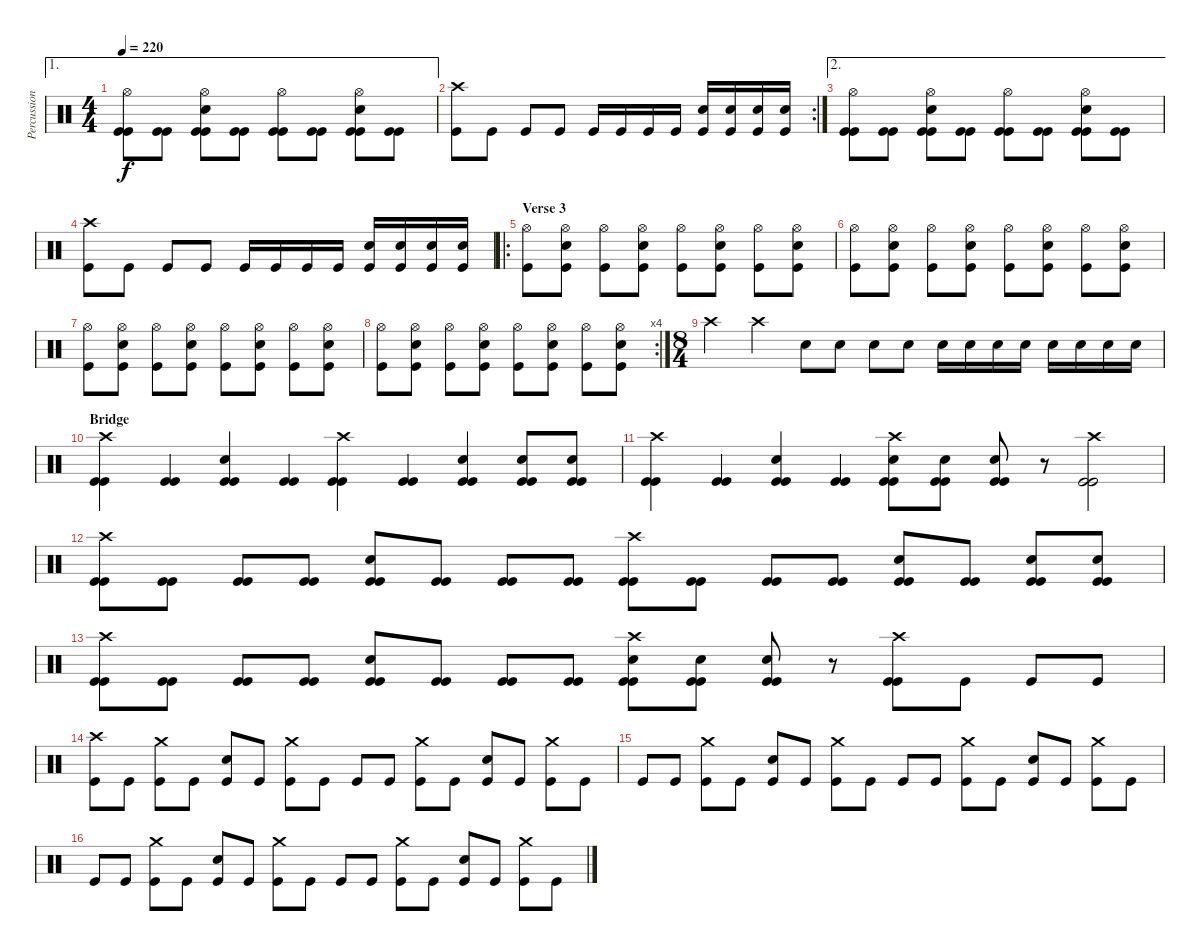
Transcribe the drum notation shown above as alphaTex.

\track ("Percussion" "Percussion") {instrument percussion}
\staff {score}
\articulation defaults
\ae 1
\ts (4 4)
\tempo 220
\clef neutral
\ks c
("Hi-Hat (open)" "Kick (hit)" "Kick (hit)").8{dy f} ("Kick (hit)" "Kick (hit)").8 ("Hi-Hat (open)" "Snare (hit) 2" "Kick (hit)" "Kick (hit)").8 ("Kick (hit)" "Kick (hit)").8 ("Hi-Hat (open)" "Kick (hit)" "Kick (hit)").8 ("Kick (hit)" "Kick (hit)").8 ("Hi-Hat (open)" "Snare (hit) 2" "Kick (hit)" "Kick (hit)").8 ("Kick (hit)" "Kick (hit)").8 |
\rc 2
("Crash high (hit)" "Kick (hit)").8 "Kick (hit)".8 "Kick (hit)".8 "Kick (hit)".8 "Kick (hit)".16 "Kick (hit)".16 "Kick (hit)".16 "Kick (hit)".16 ("Snare (hit) 2" "Kick (hit)").16 ("Snare (hit) 2" "Kick (hit)").16 ("Snare (hit) 2" "Kick (hit)").16 ("Snare (hit) 2" "Kick (hit)").16 |
\ae 2
("Hi-Hat (open)" "Kick (hit)" "Kick (hit)").8 ("Kick (hit)" "Kick (hit)").8 ("Hi-Hat (open)" "Snare (hit) 2" "Kick (hit)" "Kick (hit)").8 ("Kick (hit)" "Kick (hit)").8 ("Hi-Hat (open)" "Kick (hit)" "Kick (hit)").8 ("Kick (hit)" "Kick (hit)").8 ("Hi-Hat (open)" "Snare (hit) 2" "Kick (hit)" "Kick (hit)").8 ("Kick (hit)" "Kick (hit)").8 |
("Crash high (hit)" "Kick (hit)").8 "Kick (hit)".8 "Kick (hit)".8 "Kick (hit)".8 "Kick (hit)".16 "Kick (hit)".16 "Kick (hit)".16 "Kick (hit)".16 ("Snare (hit) 2" "Kick (hit)").16 ("Snare (hit) 2" "Kick (hit)").16 ("Snare (hit) 2" "Kick (hit)").16 ("Snare (hit) 2" "Kick (hit)").16 |
\ro
\section ("" "Verse 3")
("Hi-Hat (open)" "Kick (hit)").8 ("Hi-Hat (open)" "Snare (hit) 2" "Kick (hit)").8 ("Hi-Hat (open)" "Kick (hit)").8 ("Hi-Hat (open)" "Snare (hit) 2" "Kick (hit)").8 ("Hi-Hat (open)" "Kick (hit)").8 ("Hi-Hat (open)" "Snare (hit) 2" "Kick (hit)").8 ("Hi-Hat (open)" "Kick (hit)").8 ("Hi-Hat (open)" "Snare (hit) 2" "Kick (hit)").8 |
("Hi-Hat (open)" "Kick (hit)").8 ("Hi-Hat (open)" "Snare (hit) 2" "Kick (hit)").8 ("Hi-Hat (open)" "Kick (hit)").8 ("Hi-Hat (open)" "Snare (hit) 2" "Kick (hit)").8 ("Hi-Hat (open)" "Kick (hit)").8 ("Hi-Hat (open)" "Snare (hit) 2" "Kick (hit)").8 ("Hi-Hat (open)" "Kick (hit)").8 ("Hi-Hat (open)" "Snare (hit) 2" "Kick (hit)").8 |
("Hi-Hat (open)" "Kick (hit)").8 ("Hi-Hat (open)" "Snare (hit) 2" "Kick (hit)").8 ("Hi-Hat (open)" "Kick (hit)").8 ("Hi-Hat (open)" "Snare (hit) 2" "Kick (hit)").8 ("Hi-Hat (open)" "Kick (hit)").8 ("Hi-Hat (open)" "Snare (hit) 2" "Kick (hit)").8 ("Hi-Hat (open)" "Kick (hit)").8 ("Hi-Hat (open)" "Snare (hit) 2" "Kick (hit)").8 |
\rc 4
("Hi-Hat (open)" "Kick (hit)").8 ("Hi-Hat (open)" "Snare (hit) 2" "Kick (hit)").8 ("Hi-Hat (open)" "Kick (hit)").8 ("Hi-Hat (open)" "Snare (hit) 2" "Kick (hit)").8 ("Hi-Hat (open)" "Kick (hit)").8 ("Hi-Hat (open)" "Snare (hit) 2" "Kick (hit)").8 ("Hi-Hat (open)" "Kick (hit)").8 ("Hi-Hat (open)" "Snare (hit) 2" "Kick (hit)").8 |
\ts (8 4)
"Crash high (hit)".2 "Crash high (hit)".2 "Snare (hit) 2".8 "Snare (hit) 2".8 "Snare (hit) 2".8 "Snare (hit) 2".8 "Snare (hit) 2".16 "Snare (hit) 2".16 "Snare (hit) 2".16 "Snare (hit) 2".16 "Snare (hit) 2".16 "Snare (hit) 2".16 "Snare (hit) 2".16 "Snare (hit) 2".16 |
\section ("" "Bridge")
("Crash high (hit)" "Kick (hit)" "Kick (hit)").4 ("Kick (hit)" "Kick (hit)").4 ("Snare (hit) 2" "Kick (hit)" "Kick (hit)").4 ("Kick (hit)" "Kick (hit)").4 ("Crash high (hit)" "Kick (hit)" "Kick (hit)").4 ("Kick (hit)" "Kick (hit)").4 ("Snare (hit) 2" "Kick (hit)" "Kick (hit)").4 ("Snare (hit) 2" "Kick (hit)" "Kick (hit)").8 ("Snare (hit) 2" "Kick (hit)" "Kick (hit)").8 |
("Crash high (hit)" "Kick (hit)" "Kick (hit)").4 ("Kick (hit)" "Kick (hit)").4 ("Snare (hit) 2" "Kick (hit)" "Kick (hit)").4 ("Kick (hit)" "Kick (hit)").4 ("Crash high (hit)" "Snare (hit) 2" "Kick (hit)" "Kick (hit)").8 ("Snare (hit) 2" "Kick (hit)" "Kick (hit)").8 ("Snare (hit) 2" "Kick (hit)" "Kick (hit)").8 r.8 ("Crash high (hit)" "Kick (hit)" "Kick (hit)").2 |
("Crash high (hit)" "Kick (hit)" "Kick (hit)").8 ("Kick (hit)" "Kick (hit)").8 ("Kick (hit)" "Kick (hit)").8 ("Kick (hit)" "Kick (hit)").8 ("Snare (hit) 2" "Kick (hit)" "Kick (hit)").8 ("Kick (hit)" "Kick (hit)").8 ("Kick (hit)" "Kick (hit)").8 ("Kick (hit)" "Kick (hit)").8 ("Crash high (hit)" "Kick (hit)" "Kick (hit)").8 ("Kick (hit)" "Kick (hit)").8 ("Kick (hit)" "Kick (hit)").8 ("Kick (hit)" "Kick (hit)").8 ("Snare (hit) 2" "Kick (hit)" "Kick (hit)").8 ("Kick (hit)" "Kick (hit)").8 ("Snare (hit) 2" "Kick (hit)" "Kick (hit)").8 ("Snare (hit) 2" "Kick (hit)" "Kick (hit)").8 |
("Crash high (hit)" "Kick (hit)" "Kick (hit)").8 ("Kick (hit)" "Kick (hit)").8 ("Kick (hit)" "Kick (hit)").8 ("Kick (hit)" "Kick (hit)").8 ("Snare (hit) 2" "Kick (hit)" "Kick (hit)").8 ("Kick (hit)" "Kick (hit)").8 ("Kick (hit)" "Kick (hit)").8 ("Kick (hit)" "Kick (hit)").8 ("Crash high (hit)" "Snare (hit) 2" "Kick (hit)" "Kick (hit)").8 ("Snare (hit) 2" "Kick (hit)" "Kick (hit)").8 ("Snare (hit) 2" "Kick (hit)" "Kick (hit)").8 r.8 ("Crash high (hit)" "Kick (hit)" "Kick (hit)").8 "Kick (hit)".8 "Kick (hit)".8 "Kick (hit)".8 |
("Crash high (hit)" "Kick (hit)").8 "Kick (hit)".8 ("Crash medium (hit)" "Kick (hit)").8 "Kick (hit)".8 ("Snare (hit) 2" "Kick (hit)").8 "Kick (hit)".8 ("Crash medium (hit)" "Kick (hit)").8 "Kick (hit)".8 "Kick (hit)".8 "Kick (hit)".8 ("Crash medium (hit)" "Kick (hit)").8 "Kick (hit)".8 ("Snare (hit) 2" "Kick (hit)").8 "Kick (hit)".8 ("Crash medium (hit)" "Kick (hit)").8 "Kick (hit)".8 |
"Kick (hit)".8 "Kick (hit)".8 ("Crash medium (hit)" "Kick (hit)").8 "Kick (hit)".8 ("Snare (hit) 2" "Kick (hit)").8 "Kick (hit)".8 ("Crash medium (hit)" "Kick (hit)").8 "Kick (hit)".8 "Kick (hit)".8 "Kick (hit)".8 ("Crash medium (hit)" "Kick (hit)").8 "Kick (hit)".8 ("Snare (hit) 2" "Kick (hit)").8 "Kick (hit)".8 ("Crash medium (hit)" "Kick (hit)").8 "Kick (hit)".8 |
"Kick (hit)".8 "Kick (hit)".8 ("Crash medium (hit)" "Kick (hit)").8 "Kick (hit)".8 ("Snare (hit) 2" "Kick (hit)").8 "Kick (hit)".8 ("Crash medium (hit)" "Kick (hit)").8 "Kick (hit)".8 "Kick (hit)".8 "Kick (hit)".8 ("Crash medium (hit)" "Kick (hit)").8 "Kick (hit)".8 ("Snare (hit) 2" "Kick (hit)").8 "Kick (hit)".8 ("Crash medium (hit)" "Kick (hit)").8 "Kick (hit)".8
